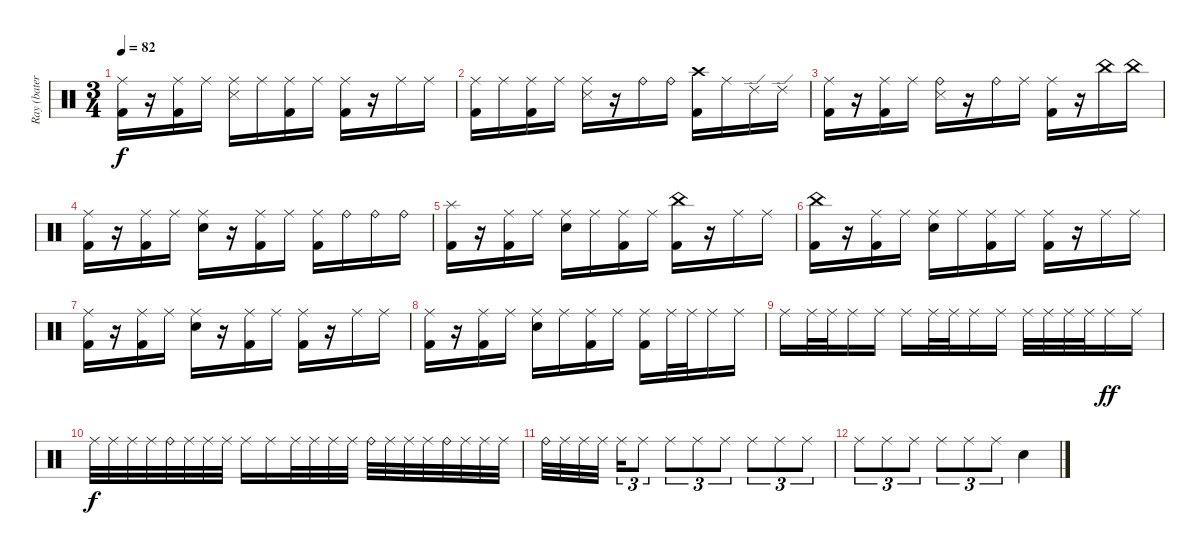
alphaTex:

\track ("Ray (batería)" "Ray (bater") {instrument percussion}
\staff {score}
\articulation defaults
\ts (3 4)
\tempo 82
\clef neutral
\ks c
("Ride (middle)" "Kick (hit) 2").16{dy f volume 14} r.16 ("Ride (middle)" "Kick (hit) 2").16 "Ride (middle)".16 ("Ride (middle)" "Snare (side stick) 3").16 "Ride (middle)".16 ("Ride (middle)" "Kick (hit) 2").16 "Ride (middle)".16 ("Ride (middle)" "Kick (hit) 2").16 r.16 "Ride (middle)".16 "Ride (middle)".16 |
("Ride (middle)" "Kick (hit) 2").16 "Ride (middle)".16 ("Ride (middle)" "Kick (hit) 2").16 "Ride (middle)".16 ("Ride (middle)" "Snare (side stick) 3").16 r.16 "Ride (bell)".16 "Ride (bell)".16 ("Crash high (hit)" "Kick (hit) 2").16 "Ride (middle)".16 "Ride (edge) 2".16 "Ride (edge) 2".16 |
("Ride (middle)" "Kick (hit) 2").16 r.16 ("Ride (middle)" "Kick (hit) 2").16 "Ride (middle)".16 ("Ride (bell)" "Snare (side stick) 3").16 r.16 "Ride (bell)".16 "Ride (middle)".16 ("Ride (middle)" "Kick (hit) 2").16 r.16 "China (hit)".16 "China (hit)".16 |
("Ride (middle)" "Kick (hit) 2").16 r.16 ("Ride (middle)" "Kick (hit) 2").16 "Ride (middle)".16 ("Ride (middle)" "Snare (hit) 2").16 r.16 ("Ride (middle)" "Kick (hit) 2").16 "Ride (middle)".16 ("Ride (middle)" "Kick (hit) 2").16 "Ride (bell)".16 "Ride (bell)".16 "Ride (bell)".16 |
("Splash (hit)" "Kick (hit) 2").16{volume 13} r.16 ("Ride (middle)" "Kick (hit) 2").16 "Ride (middle)".16 ("Ride (middle)" "Snare (hit) 2").16 "Ride (middle)".16 ("Ride (middle)" "Kick (hit) 2").16 "Ride (middle)".16 ("China (hit)" "Kick (hit) 2").16 r.16 "Ride (middle)".16 "Ride (middle)".16 |
("China (hit)" "Kick (hit) 2").16 r.16 ("Ride (middle)" "Kick (hit) 2").16 "Ride (middle)".16 ("Ride (middle)" "Snare (hit) 2").16 "Ride (middle)".16 ("Ride (middle)" "Kick (hit) 2").16 "Ride (middle)".16 ("Ride (middle)" "Kick (hit) 2").16 r.16 "Ride (middle)".16 "Ride (middle)".16 |
("Ride (middle)" "Kick (hit) 2").16 r.16 ("Ride (middle)" "Kick (hit) 2").16 "Ride (middle)".16 ("Ride (middle)" "Snare (hit) 2").16 r.16 ("Ride (middle)" "Kick (hit) 2").16 "Ride (middle)".16 ("Ride (middle)" "Kick (hit) 2").16 r.16 "Ride (middle)".16 "Ride (middle)".16 |
("Ride (middle)" "Kick (hit) 2").16 r.16 ("Ride (middle)" "Kick (hit) 2").16 "Ride (middle)".16 ("Ride (middle)" "Snare (hit) 2").16 "Ride (middle)".16 ("Ride (middle)" "Kick (hit) 2").16 "Ride (middle)".16 ("Ride (middle)" "Kick (hit) 2").16{volume 12} "Ride (middle)".32 "Ride (middle)".32 "Ride (middle)".16 "Ride (middle)".16 |
"Ride (middle)".16 "Ride (middle)".32 "Ride (middle)".32 "Ride (middle)".16 "Ride (middle)".16 "Ride (middle)".16 "Ride (middle)".32 "Ride (middle)".32 "Ride (middle)".16 "Ride (middle)".16 "Ride (middle)".32 "Ride (middle)".32 "Ride (middle)".32 "Ride (middle)".32 "Ride (middle)".16{dy ff} "Ride (middle)".16 |
"Ride (middle)".32{dy f volume 11} "Ride (middle)".32 "Ride (middle)".32 "Ride (middle)".32 "Ride (bell)".32 "Ride (middle)".32 "Ride (middle)".32 "Ride (middle)".32 "Ride (middle)".16 "Ride (middle)".16 "Ride (middle)".32 "Ride (middle)".32 "Ride (middle)".32 "Ride (middle)".32 "Ride (bell)".32 "Ride (middle)".32 "Ride (middle)".32 "Ride (middle)".32 "Ride (bell)".32 "Ride (middle)".32 "Ride (middle)".32 "Ride (middle)".32 |
"Ride (bell)".32 "Ride (middle)".32 "Ride (middle)".32 "Ride (middle)".32 "Ride (middle)".16{tu (3 2)} "Ride (middle)".8{tu (3 2)} "Ride (middle)".8{tu (3 2) volume 10} "Ride (middle)".8{tu (3 2)} "Ride (middle)".8{tu (3 2)} "Ride (middle)".8{tu (3 2) volume 9} "Ride (middle)".8{tu (3 2)} "Ride (middle)".8{tu (3 2)} |
"Ride (middle)".8{tu (3 2) volume 8} "Ride (middle)".8{tu (3 2)} "Ride (middle)".8{tu (3 2)} "Ride (middle)".8{tu (3 2) volume 7} "Ride (middle)".8{tu (3 2)} "Ride (middle)".8{tu (3 2)} "Snare (hit)".4{volume 6}
